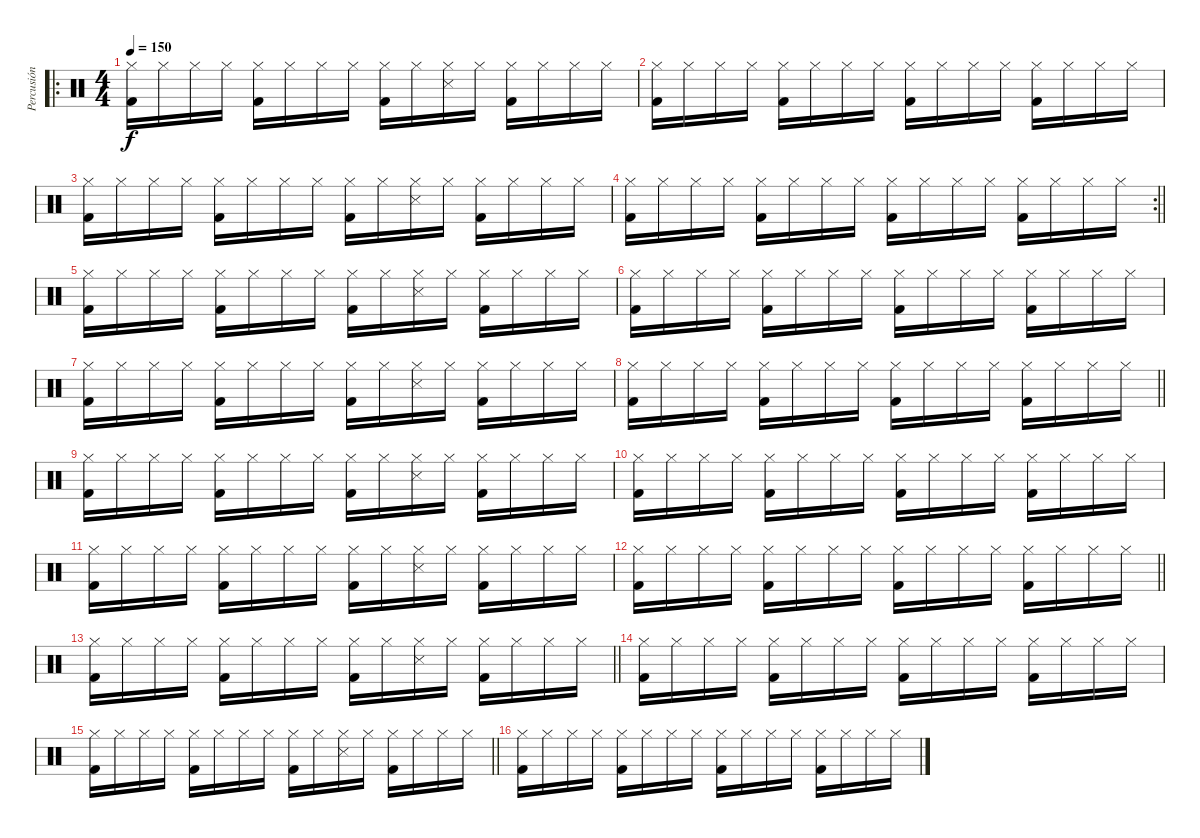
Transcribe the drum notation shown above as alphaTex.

\track ("Percusión" "Percusión") {instrument percussion}
\staff {score}
\articulation defaults
\ro
\ts (4 4)
\tempo 150
\clef neutral
\ks c
("Kick (hit) 2" "Hi-Hat (closed)").16{dy f} "Hi-Hat (closed)".16 "Hi-Hat (closed)".16 "Hi-Hat (closed)".16 ("Kick (hit) 2" "Hi-Hat (closed)").16 "Hi-Hat (closed)".16 "Hi-Hat (closed)".16 "Hi-Hat (closed)".16 ("Kick (hit) 2" "Hi-Hat (closed)").16 "Hi-Hat (closed)".16 ("Snare (side stick) 3" "Hi-Hat (closed)").16 "Hi-Hat (closed)".16 ("Kick (hit) 2" "Hi-Hat (closed)").16 "Hi-Hat (closed)".16 "Hi-Hat (closed)".16 "Hi-Hat (closed)".16 |
("Kick (hit) 2" "Hi-Hat (closed)").16 "Hi-Hat (closed)".16 "Hi-Hat (closed)".16 "Hi-Hat (closed)".16 ("Kick (hit) 2" "Hi-Hat (closed)").16 "Hi-Hat (closed)".16 "Hi-Hat (closed)".16 "Hi-Hat (closed)".16 ("Kick (hit) 2" "Hi-Hat (closed)").16 "Hi-Hat (closed)".16 "Hi-Hat (closed)".16 "Hi-Hat (closed)".16 ("Kick (hit) 2" "Hi-Hat (closed)").16 "Hi-Hat (closed)".16 "Hi-Hat (closed)".16 "Hi-Hat (closed)".16 |
("Kick (hit) 2" "Hi-Hat (closed)").16 "Hi-Hat (closed)".16 "Hi-Hat (closed)".16 "Hi-Hat (closed)".16 ("Kick (hit) 2" "Hi-Hat (closed)").16 "Hi-Hat (closed)".16 "Hi-Hat (closed)".16 "Hi-Hat (closed)".16 ("Kick (hit) 2" "Hi-Hat (closed)").16 "Hi-Hat (closed)".16 ("Snare (side stick) 3" "Hi-Hat (closed)").16 "Hi-Hat (closed)".16 ("Kick (hit) 2" "Hi-Hat (closed)").16 "Hi-Hat (closed)".16 "Hi-Hat (closed)".16 "Hi-Hat (closed)".16 |
\rc 2
\barLineRight lightlight
("Kick (hit) 2" "Hi-Hat (closed)").16 "Hi-Hat (closed)".16 "Hi-Hat (closed)".16 "Hi-Hat (closed)".16 ("Kick (hit) 2" "Hi-Hat (closed)").16 "Hi-Hat (closed)".16 "Hi-Hat (closed)".16 "Hi-Hat (closed)".16 ("Kick (hit) 2" "Hi-Hat (closed)").16 "Hi-Hat (closed)".16 "Hi-Hat (closed)".16 "Hi-Hat (closed)".16 ("Kick (hit) 2" "Hi-Hat (closed)").16 "Hi-Hat (closed)".16 "Hi-Hat (closed)".16 "Hi-Hat (closed)".16 |
("Kick (hit) 2" "Hi-Hat (closed)").16 "Hi-Hat (closed)".16 "Hi-Hat (closed)".16 "Hi-Hat (closed)".16 ("Kick (hit) 2" "Hi-Hat (closed)").16 "Hi-Hat (closed)".16 "Hi-Hat (closed)".16 "Hi-Hat (closed)".16 ("Kick (hit) 2" "Hi-Hat (closed)").16 "Hi-Hat (closed)".16 ("Snare (side stick) 3" "Hi-Hat (closed)").16 "Hi-Hat (closed)".16 ("Kick (hit) 2" "Hi-Hat (closed)").16 "Hi-Hat (closed)".16 "Hi-Hat (closed)".16 "Hi-Hat (closed)".16 |
("Kick (hit) 2" "Hi-Hat (closed)").16 "Hi-Hat (closed)".16 "Hi-Hat (closed)".16 "Hi-Hat (closed)".16 ("Kick (hit) 2" "Hi-Hat (closed)").16 "Hi-Hat (closed)".16 "Hi-Hat (closed)".16 "Hi-Hat (closed)".16 ("Kick (hit) 2" "Hi-Hat (closed)").16 "Hi-Hat (closed)".16 "Hi-Hat (closed)".16 "Hi-Hat (closed)".16 ("Kick (hit) 2" "Hi-Hat (closed)").16 "Hi-Hat (closed)".16 "Hi-Hat (closed)".16 "Hi-Hat (closed)".16 |
("Kick (hit) 2" "Hi-Hat (closed)").16 "Hi-Hat (closed)".16 "Hi-Hat (closed)".16 "Hi-Hat (closed)".16 ("Kick (hit) 2" "Hi-Hat (closed)").16 "Hi-Hat (closed)".16 "Hi-Hat (closed)".16 "Hi-Hat (closed)".16 ("Kick (hit) 2" "Hi-Hat (closed)").16 "Hi-Hat (closed)".16 ("Snare (side stick) 3" "Hi-Hat (closed)").16 "Hi-Hat (closed)".16 ("Kick (hit) 2" "Hi-Hat (closed)").16 "Hi-Hat (closed)".16 "Hi-Hat (closed)".16 "Hi-Hat (closed)".16 |
\barLineRight lightlight
("Kick (hit) 2" "Hi-Hat (closed)").16 "Hi-Hat (closed)".16 "Hi-Hat (closed)".16 "Hi-Hat (closed)".16 ("Kick (hit) 2" "Hi-Hat (closed)").16 "Hi-Hat (closed)".16 "Hi-Hat (closed)".16 "Hi-Hat (closed)".16 ("Kick (hit) 2" "Hi-Hat (closed)").16 "Hi-Hat (closed)".16 "Hi-Hat (closed)".16 "Hi-Hat (closed)".16 ("Kick (hit) 2" "Hi-Hat (closed)").16 "Hi-Hat (closed)".16 "Hi-Hat (closed)".16 "Hi-Hat (closed)".16 |
("Kick (hit) 2" "Hi-Hat (closed)").16 "Hi-Hat (closed)".16 "Hi-Hat (closed)".16 "Hi-Hat (closed)".16 ("Kick (hit) 2" "Hi-Hat (closed)").16 "Hi-Hat (closed)".16 "Hi-Hat (closed)".16 "Hi-Hat (closed)".16 ("Kick (hit) 2" "Hi-Hat (closed)").16 "Hi-Hat (closed)".16 ("Snare (side stick) 3" "Hi-Hat (closed)").16 "Hi-Hat (closed)".16 ("Kick (hit) 2" "Hi-Hat (closed)").16 "Hi-Hat (closed)".16 "Hi-Hat (closed)".16 "Hi-Hat (closed)".16 |
("Kick (hit) 2" "Hi-Hat (closed)").16 "Hi-Hat (closed)".16 "Hi-Hat (closed)".16 "Hi-Hat (closed)".16 ("Kick (hit) 2" "Hi-Hat (closed)").16 "Hi-Hat (closed)".16 "Hi-Hat (closed)".16 "Hi-Hat (closed)".16 ("Kick (hit) 2" "Hi-Hat (closed)").16 "Hi-Hat (closed)".16 "Hi-Hat (closed)".16 "Hi-Hat (closed)".16 ("Kick (hit) 2" "Hi-Hat (closed)").16 "Hi-Hat (closed)".16 "Hi-Hat (closed)".16 "Hi-Hat (closed)".16 |
("Kick (hit) 2" "Hi-Hat (closed)").16 "Hi-Hat (closed)".16 "Hi-Hat (closed)".16 "Hi-Hat (closed)".16 ("Kick (hit) 2" "Hi-Hat (closed)").16 "Hi-Hat (closed)".16 "Hi-Hat (closed)".16 "Hi-Hat (closed)".16 ("Kick (hit) 2" "Hi-Hat (closed)").16 "Hi-Hat (closed)".16 ("Snare (side stick) 3" "Hi-Hat (closed)").16 "Hi-Hat (closed)".16 ("Kick (hit) 2" "Hi-Hat (closed)").16 "Hi-Hat (closed)".16 "Hi-Hat (closed)".16 "Hi-Hat (closed)".16 |
\barLineRight lightlight
("Kick (hit) 2" "Hi-Hat (closed)").16 "Hi-Hat (closed)".16 "Hi-Hat (closed)".16 "Hi-Hat (closed)".16 ("Kick (hit) 2" "Hi-Hat (closed)").16 "Hi-Hat (closed)".16 "Hi-Hat (closed)".16 "Hi-Hat (closed)".16 ("Kick (hit) 2" "Hi-Hat (closed)").16 "Hi-Hat (closed)".16 "Hi-Hat (closed)".16 "Hi-Hat (closed)".16 ("Kick (hit) 2" "Hi-Hat (closed)").16 "Hi-Hat (closed)".16 "Hi-Hat (closed)".16 "Hi-Hat (closed)".16 |
\barLineRight lightlight
("Kick (hit) 2" "Hi-Hat (closed)").16 "Hi-Hat (closed)".16 "Hi-Hat (closed)".16 "Hi-Hat (closed)".16 ("Kick (hit) 2" "Hi-Hat (closed)").16 "Hi-Hat (closed)".16 "Hi-Hat (closed)".16 "Hi-Hat (closed)".16 ("Kick (hit) 2" "Hi-Hat (closed)").16 "Hi-Hat (closed)".16 ("Snare (side stick) 3" "Hi-Hat (closed)").16 "Hi-Hat (closed)".16 ("Kick (hit) 2" "Hi-Hat (closed)").16 "Hi-Hat (closed)".16 "Hi-Hat (closed)".16 "Hi-Hat (closed)".16 |
("Kick (hit) 2" "Hi-Hat (closed)").16 "Hi-Hat (closed)".16 "Hi-Hat (closed)".16 "Hi-Hat (closed)".16 ("Kick (hit) 2" "Hi-Hat (closed)").16 "Hi-Hat (closed)".16 "Hi-Hat (closed)".16 "Hi-Hat (closed)".16 ("Kick (hit) 2" "Hi-Hat (closed)").16 "Hi-Hat (closed)".16 "Hi-Hat (closed)".16 "Hi-Hat (closed)".16 ("Kick (hit) 2" "Hi-Hat (closed)").16 "Hi-Hat (closed)".16 "Hi-Hat (closed)".16 "Hi-Hat (closed)".16 |
\barLineRight lightlight
("Kick (hit) 2" "Hi-Hat (closed)").16 "Hi-Hat (closed)".16 "Hi-Hat (closed)".16 "Hi-Hat (closed)".16 ("Kick (hit) 2" "Hi-Hat (closed)").16 "Hi-Hat (closed)".16 "Hi-Hat (closed)".16 "Hi-Hat (closed)".16 ("Kick (hit) 2" "Hi-Hat (closed)").16 "Hi-Hat (closed)".16 ("Snare (side stick) 3" "Hi-Hat (closed)").16 "Hi-Hat (closed)".16 ("Kick (hit) 2" "Hi-Hat (closed)").16 "Hi-Hat (closed)".16 "Hi-Hat (closed)".16 "Hi-Hat (closed)".16 |
("Kick (hit) 2" "Hi-Hat (closed)").16 "Hi-Hat (closed)".16 "Hi-Hat (closed)".16 "Hi-Hat (closed)".16 ("Kick (hit) 2" "Hi-Hat (closed)").16 "Hi-Hat (closed)".16 "Hi-Hat (closed)".16 "Hi-Hat (closed)".16 ("Kick (hit) 2" "Hi-Hat (closed)").16 "Hi-Hat (closed)".16 "Hi-Hat (closed)".16 "Hi-Hat (closed)".16 ("Kick (hit) 2" "Hi-Hat (closed)").16 "Hi-Hat (closed)".16 "Hi-Hat (closed)".16 "Hi-Hat (closed)".16
